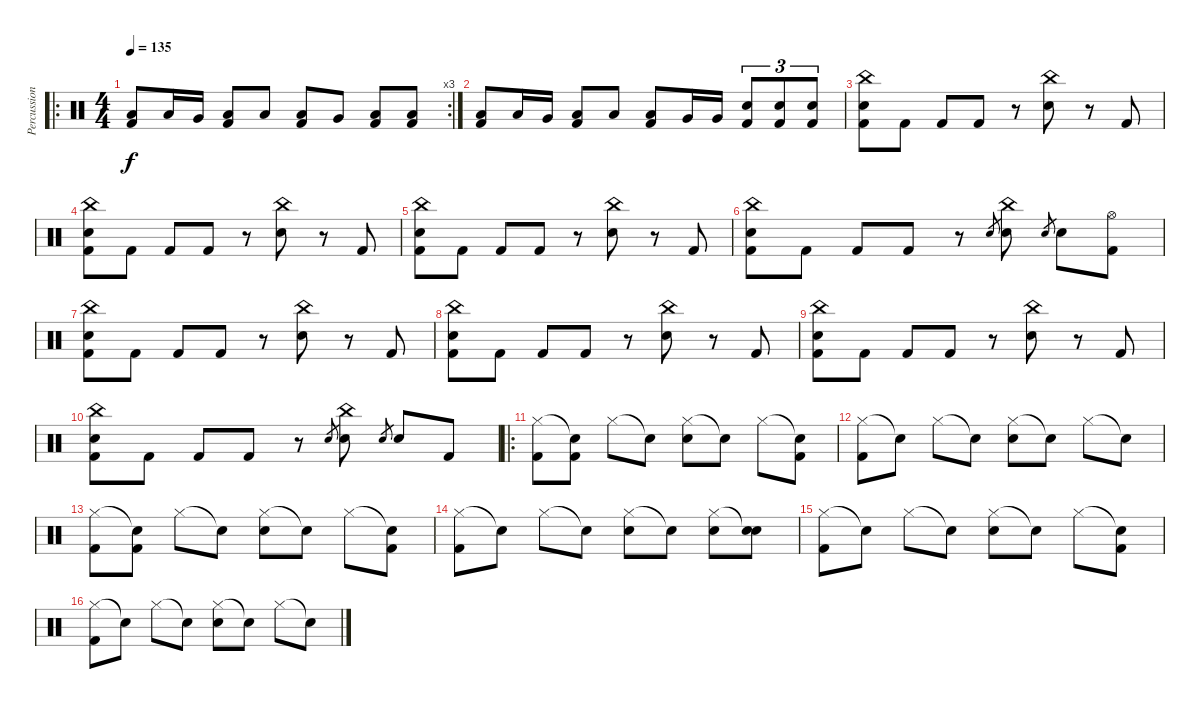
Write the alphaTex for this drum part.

\track ("Percussion" "Percussion") {instrument percussion}
\staff {score}
\articulation defaults
\ro
\rc 3
\ts (4 4)
\tempo 135
\clef neutral
\ks c
("Low Floor Tom (hit)" "Kick (hit) 2").8{dy f} "Low Tom (hit)".16 "Very Low Tom (hit)".16 ("Low Floor Tom (hit)" "Kick (hit) 2").8 "Low Floor Tom (hit)".8 ("Low Floor Tom (hit)" "Kick (hit) 2").8 "Very Low Tom (hit)".8 ("Low Floor Tom (hit)" "Kick (hit) 2").8 ("Low Floor Tom (hit)" "Kick (hit) 2").8 |
("Low Floor Tom (hit)" "Kick (hit) 2").8 "Low Tom (hit)".16 "Very Low Tom (hit)".16 ("Low Floor Tom (hit)" "Kick (hit) 2").8 "Low Floor Tom (hit)".8 ("Low Floor Tom (hit)" "Kick (hit) 2").8 "Very Low Tom (hit)".16 "Very Low Tom (hit)".16 ("Electric Snare (hit)" "Kick (hit) 2").8{tu (3 2)} ("Electric Snare (hit)" "Kick (hit) 2").8{tu (3 2)} ("Electric Snare (hit)" "Kick (hit) 2").8{tu (3 2)} |
("Electric Snare (hit)" "China (hit)" "Kick (hit) 2").8 "Kick (hit) 2".8 "Kick (hit) 2".8 "Kick (hit) 2".8 r.8 ("China (hit)" "Electric Snare (hit)").8 r.8 "Kick (hit) 2".8 |
("Electric Snare (hit)" "China (hit)" "Kick (hit) 2").8 "Kick (hit) 2".8 "Kick (hit) 2".8 "Kick (hit) 2".8 r.8 ("China (hit)" "Electric Snare (hit)").8 r.8 "Kick (hit) 2".8 |
("Electric Snare (hit)" "China (hit)" "Kick (hit) 2").8 "Kick (hit) 2".8 "Kick (hit) 2".8 "Kick (hit) 2".8 r.8 ("China (hit)" "Electric Snare (hit)").8 r.8 "Kick (hit) 2".8 |
("Electric Snare (hit)" "China (hit)" "Kick (hit) 2").8 "Kick (hit) 2".8 "Kick (hit) 2".8 "Kick (hit) 2".8 r.8 "Electric Snare (hit)".8{gr} ("China (hit)" "Electric Snare (hit)").8 "Electric Snare (hit)".8{gr} "Electric Snare (hit)".8 ("Hi-Hat (open)" "Kick (hit) 2").8 |
("Electric Snare (hit)" "China (hit)" "Kick (hit) 2").8 "Kick (hit) 2".8 "Kick (hit) 2".8 "Kick (hit) 2".8 r.8 ("China (hit)" "Electric Snare (hit)").8 r.8 "Kick (hit) 2".8 |
("Electric Snare (hit)" "China (hit)" "Kick (hit) 2").8 "Kick (hit) 2".8 "Kick (hit) 2".8 "Kick (hit) 2".8 r.8 ("China (hit)" "Electric Snare (hit)").8 r.8 "Kick (hit) 2".8 |
("Electric Snare (hit)" "China (hit)" "Kick (hit) 2").8 "Kick (hit) 2".8 "Kick (hit) 2".8 "Kick (hit) 2".8 r.8 ("China (hit)" "Electric Snare (hit)").8 r.8 "Kick (hit) 2".8 |
("Electric Snare (hit)" "China (hit)" "Kick (hit) 2").8 "Kick (hit) 2".8 "Kick (hit) 2".8 "Kick (hit) 2".8 r.8 "Electric Snare (hit)".8{gr} ("China (hit)" "Electric Snare (hit)").8 "Electric Snare (hit)".8{gr} "Electric Snare (hit)".8 "Kick (hit) 2".8 |
\ro
("Hi-Hat (closed)" "Kick (hit) 2").8 ("Snare (hit)"{t} "Kick (hit) 2").8 "Hi-Hat (closed)".8 "Snare (hit)"{t}.8 ("Hi-Hat (closed)" "Electric Snare (hit)").8 "Snare (hit)"{t}.8 "Hi-Hat (closed)".8 ("Snare (hit)"{t} "Kick (hit) 2").8 |
("Hi-Hat (closed)" "Kick (hit) 2").8 "Snare (hit)"{t}.8 "Hi-Hat (closed)".8 "Snare (hit)"{t}.8 ("Hi-Hat (closed)" "Electric Snare (hit)").8 "Snare (hit)"{t}.8 "Hi-Hat (closed)".8 "Snare (hit)"{t}.8 |
("Hi-Hat (closed)" "Kick (hit) 2").8 ("Snare (hit)"{t} "Kick (hit) 2").8 "Hi-Hat (closed)".8 "Snare (hit)"{t}.8 ("Hi-Hat (closed)" "Electric Snare (hit)").8 "Snare (hit)"{t}.8 "Hi-Hat (closed)".8 ("Snare (hit)"{t} "Kick (hit) 2").8 |
("Hi-Hat (closed)" "Kick (hit) 2").8 "Snare (hit)"{t}.8 "Hi-Hat (closed)".8 "Snare (hit)"{t}.8 ("Hi-Hat (closed)" "Electric Snare (hit)").8 "Snare (hit)"{t}.8 ("Hi-Hat (closed)" "Electric Snare (hit)").8 ("Snare (hit)"{t} "Electric Snare (hit)").8 |
("Hi-Hat (closed)" "Kick (hit) 2").8 "Snare (hit)"{t}.8 "Hi-Hat (closed)".8 "Snare (hit)"{t}.8 ("Hi-Hat (closed)" "Electric Snare (hit)").8 "Snare (hit)"{t}.8 "Hi-Hat (closed)".8 ("Snare (hit)"{t} "Kick (hit) 2").8 |
("Hi-Hat (closed)" "Kick (hit) 2").8 "Snare (hit)"{t}.8 "Hi-Hat (closed)".8 "Snare (hit)"{t}.8 ("Hi-Hat (closed)" "Electric Snare (hit)").8 "Snare (hit)"{t}.8 "Hi-Hat (closed)".8 "Snare (hit)"{t}.8
